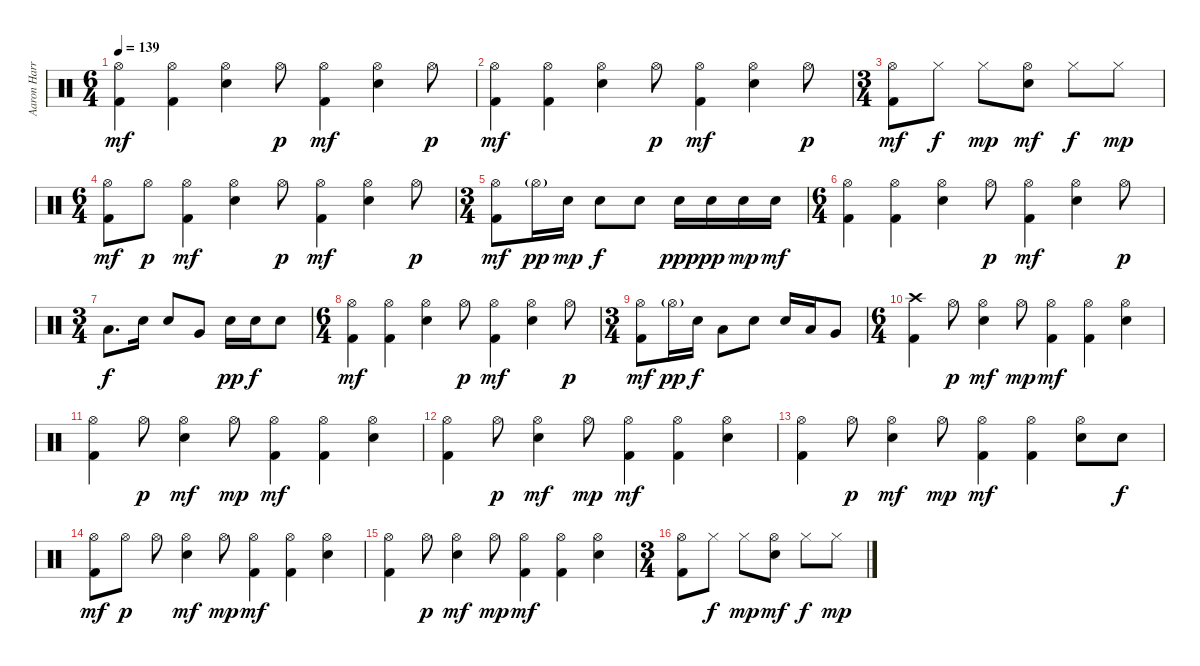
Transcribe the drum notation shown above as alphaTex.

\track ("Aaron Harris" "Aaron Harr") {instrument percussion}
\staff {score}
\articulation defaults
\ts (6 4)
\tempo 139
\clef neutral
\ks c
("Hi-Hat (open)" "Kick (hit) 2").4{dy mf} ("Hi-Hat (open)" "Kick (hit) 2").4 ("Hi-Hat (open)" "Electric Snare (hit)").4 "Hi-Hat (open)".8{dy p} ("Hi-Hat (open)" "Kick (hit) 2").4{dy mf} ("Hi-Hat (open)" "Electric Snare (hit)").4 "Hi-Hat (open)".8{dy p} |
("Hi-Hat (open)" "Kick (hit) 2").4{dy mf} ("Hi-Hat (open)" "Kick (hit) 2").4 ("Hi-Hat (open)" "Electric Snare (hit)").4 "Hi-Hat (open)".8{dy p} ("Hi-Hat (open)" "Kick (hit) 2").4{dy mf} ("Hi-Hat (open)" "Electric Snare (hit)").4 "Hi-Hat (open)".8{dy p} |
\ts (3 4)
("Hi-Hat (open)" "Kick (hit) 2").8{dy mf} "Hi-Hat (closed)".8{dy f} "Hi-Hat (closed)".8{dy mp} ("Hi-Hat (open)" "Electric Snare (hit)").8{dy mf} "Hi-Hat (closed)".8{dy f} "Hi-Hat (closed)".8{dy mp} |
\ts (6 4)
("Hi-Hat (open)" "Kick (hit) 2").8{dy mf} "Hi-Hat (open)".8{dy p} ("Hi-Hat (open)" "Kick (hit) 2").4{dy mf} ("Hi-Hat (open)" "Electric Snare (hit)").4 "Hi-Hat (open)".8{dy p} ("Hi-Hat (open)" "Kick (hit) 2").4{dy mf} ("Hi-Hat (open)" "Electric Snare (hit)").4 "Hi-Hat (open)".8{dy p} |
\ts (3 4)
("Hi-Hat (open)" "Kick (hit) 2").8{dy mf} "Hi-Hat (open)"{g}.16{dy pp} "Electric Snare (hit)".16{dy mp} "Electric Snare (hit)".8{dy f} "Electric Snare (hit)".8 "Electric Snare (hit)".16{dy ppp} "Electric Snare (hit)".16{dy pp} "Electric Snare (hit)".16{dy mp} "Electric Snare (hit)".16{dy mf} |
\ts (6 4)
("Hi-Hat (open)" "Kick (hit) 2").4 ("Hi-Hat (open)" "Kick (hit) 2").4 ("Hi-Hat (open)" "Electric Snare (hit)").4 "Hi-Hat (open)".8{dy p} ("Hi-Hat (open)" "Kick (hit) 2").4{dy mf} ("Hi-Hat (open)" "Electric Snare (hit)").4 "Hi-Hat (open)".8{dy p} |
\ts (3 4)
"Low Tom (hit)".8{d dy f} "Electric Snare (hit)".16 "Electric Snare (hit)".8 "Very Low Tom (hit)".8 "Electric Snare (hit)".16{dy pp} "Electric Snare (hit)".16{dy f} "Electric Snare (hit)".8 |
\ts (6 4)
("Hi-Hat (open)" "Kick (hit) 2").4{dy mf} ("Hi-Hat (open)" "Kick (hit) 2").4 ("Hi-Hat (open)" "Electric Snare (hit)").4 "Hi-Hat (open)".8{dy p} ("Hi-Hat (open)" "Kick (hit) 2").4{dy mf} ("Hi-Hat (open)" "Electric Snare (hit)").4 "Hi-Hat (open)".8{dy p} |
\ts (3 4)
("Hi-Hat (open)" "Kick (hit) 2").8{dy mf} "Hi-Hat (open)"{g}.16{dy pp} "Electric Snare (hit)".16{dy f} "Low Tom (hit)".8 "Electric Snare (hit)".8 "Electric Snare (hit)".16 "Low Tom (hit)".16 "Very Low Tom (hit)".8 |
\ts (6 4)
("Crash high (hit)" "Kick (hit) 2").4 "Hi-Hat (open)".8{dy p} ("Hi-Hat (open)" "Electric Snare (hit)").4{dy mf} "Hi-Hat (open)".8{dy mp} ("Hi-Hat (open)" "Kick (hit) 2").4{dy mf} ("Hi-Hat (open)" "Kick (hit) 2").4 ("Hi-Hat (open)" "Electric Snare (hit)").4 |
("Hi-Hat (open)" "Kick (hit) 2").4 "Hi-Hat (open)".8{dy p} ("Hi-Hat (open)" "Electric Snare (hit)").4{dy mf} "Hi-Hat (open)".8{dy mp} ("Hi-Hat (open)" "Kick (hit) 2").4{dy mf} ("Hi-Hat (open)" "Kick (hit) 2").4 ("Hi-Hat (open)" "Electric Snare (hit)").4 |
("Hi-Hat (open)" "Kick (hit) 2").4 "Hi-Hat (open)".8{dy p} ("Hi-Hat (open)" "Electric Snare (hit)").4{dy mf} "Hi-Hat (open)".8{dy mp} ("Hi-Hat (open)" "Kick (hit) 2").4{dy mf} ("Hi-Hat (open)" "Kick (hit) 2").4 ("Hi-Hat (open)" "Electric Snare (hit)").4 |
("Hi-Hat (open)" "Kick (hit) 2").4 "Hi-Hat (open)".8{dy p} ("Hi-Hat (open)" "Electric Snare (hit)").4{dy mf} "Hi-Hat (open)".8{dy mp} ("Hi-Hat (open)" "Kick (hit) 2").4{dy mf} ("Hi-Hat (open)" "Kick (hit) 2").4 ("Hi-Hat (open)" "Electric Snare (hit)").8 "Electric Snare (hit)".8{dy f} |
("Hi-Hat (open)" "Kick (hit) 2").8{dy mf} "Hi-Hat (open)".8{dy p} "Hi-Hat (open)".8 ("Hi-Hat (open)" "Electric Snare (hit)").4{dy mf} "Hi-Hat (open)".8{dy mp} ("Hi-Hat (open)" "Kick (hit) 2").4{dy mf} ("Hi-Hat (open)" "Kick (hit) 2").4 ("Hi-Hat (open)" "Electric Snare (hit)").4 |
("Hi-Hat (open)" "Kick (hit) 2").4 "Hi-Hat (open)".8{dy p} ("Hi-Hat (open)" "Electric Snare (hit)").4{dy mf} "Hi-Hat (open)".8{dy mp} ("Hi-Hat (open)" "Kick (hit) 2").4{dy mf} ("Hi-Hat (open)" "Kick (hit) 2").4 ("Hi-Hat (open)" "Electric Snare (hit)").4 |
\ts (3 4)
("Hi-Hat (open)" "Kick (hit) 2").8 "Hi-Hat (closed)".8{dy f} "Hi-Hat (closed)".8{dy mp} ("Hi-Hat (open)" "Electric Snare (hit)").8{dy mf} "Hi-Hat (closed)".8{dy f} "Hi-Hat (closed)".8{dy mp}
